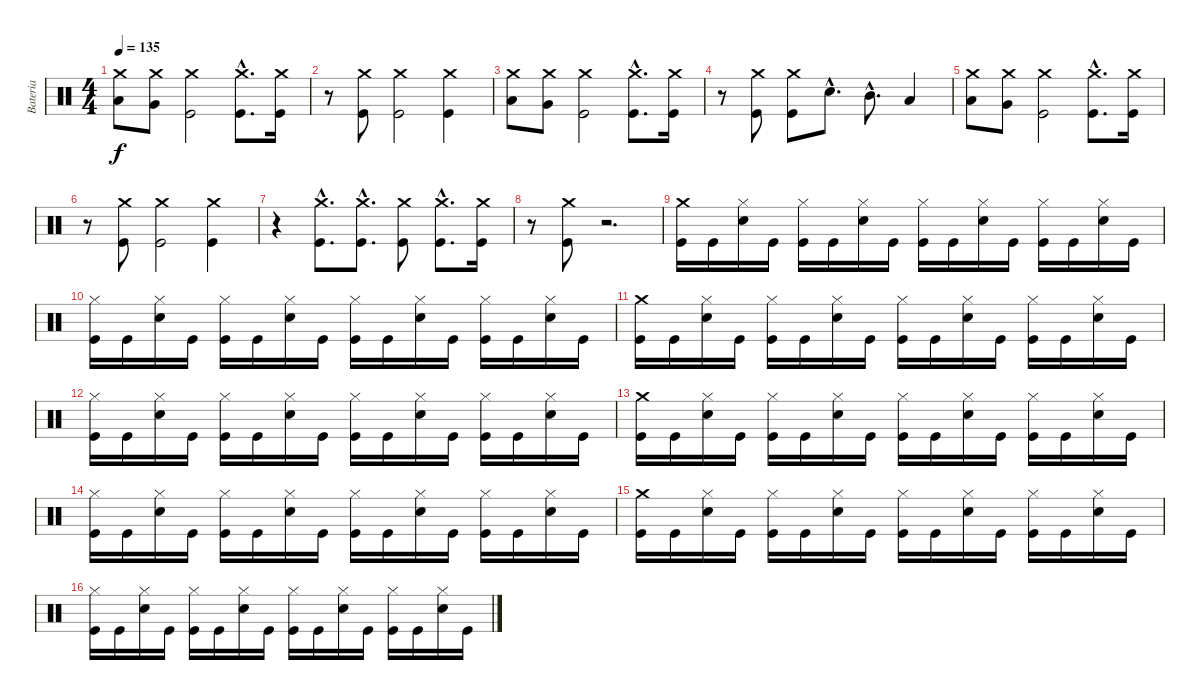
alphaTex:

\track ("Bateria" "Bateria") {instrument percussion}
\staff {score}
\articulation defaults
\ts (4 4)
\tempo 135
\clef neutral
\ks c
("Crash medium (hit)" "Low Tom (hit)").8{dy f} ("Crash medium (hit)" "Very Low Tom (hit)").8 ("Kick (hit)" "Crash medium (hit)").2 ("Kick (hit)"{hac} "Crash medium (hit)"{hac}).8{d} ("Kick (hit)" "Crash medium (hit)").16 |
r.8 ("Kick (hit)" "Crash medium (hit)").8 ("Kick (hit)" "Crash medium (hit)").2 ("Kick (hit)" "Crash medium (hit)").4 |
("Crash medium (hit)" "Low Tom (hit)").8 ("Crash medium (hit)" "Very Low Tom (hit)").8 ("Kick (hit)" "Crash medium (hit)").2 ("Kick (hit)"{hac} "Crash medium (hit)"{hac}).8{d} ("Kick (hit)" "Crash medium (hit)").16 |
r.8 ("Kick (hit)" "Crash medium (hit)").8 ("Kick (hit)" "Crash medium (hit)").8 "Snare (hit) 2"{hac}.8{d} "Mid Tom (hit)"{hac}.8{d} "Low Tom (hit)".4 |
("Crash medium (hit)" "Low Tom (hit)").8 ("Crash medium (hit)" "Very Low Tom (hit)").8 ("Kick (hit)" "Crash medium (hit)").2 ("Kick (hit)"{hac} "Crash medium (hit)"{hac}).8{d} ("Kick (hit)" "Crash medium (hit)").16 |
r.8 ("Kick (hit)" "Crash medium (hit)").8 ("Kick (hit)" "Crash medium (hit)").2 ("Kick (hit)" "Crash medium (hit)").4 |
r.4 ("Kick (hit)"{hac} "Crash medium (hit)"{hac}).8{d} ("Kick (hit)"{hac} "Crash medium (hit)"{hac}).8{d} ("Kick (hit)" "Crash medium (hit)").8 ("Kick (hit)"{hac} "Crash medium (hit)"{hac}).8{d} ("Kick (hit)" "Crash medium (hit)").16 |
r.8 ("Kick (hit)" "Crash medium (hit)").8 r.2{d} |
("Kick (hit)" "Crash medium (hit)").16 "Kick (hit)".16 ("Snare (hit) 2" "Hi-Hat (closed)").16 "Kick (hit)".16 ("Kick (hit)" "Hi-Hat (closed)").16 "Kick (hit)".16 ("Snare (hit) 2" "Hi-Hat (closed)").16 "Kick (hit)".16 ("Kick (hit)" "Hi-Hat (closed)").16 "Kick (hit)".16 ("Snare (hit) 2" "Hi-Hat (closed)").16 "Kick (hit)".16 ("Kick (hit)" "Hi-Hat (closed)").16 "Kick (hit)".16 ("Snare (hit) 2" "Hi-Hat (closed)").16 "Kick (hit)".16 |
("Kick (hit)" "Hi-Hat (closed)").16 "Kick (hit)".16 ("Snare (hit) 2" "Hi-Hat (closed)").16 "Kick (hit)".16 ("Kick (hit)" "Hi-Hat (closed)").16 "Kick (hit)".16 ("Snare (hit) 2" "Hi-Hat (closed)").16 "Kick (hit)".16 ("Kick (hit)" "Hi-Hat (closed)").16 "Kick (hit)".16 ("Snare (hit) 2" "Hi-Hat (closed)").16 "Kick (hit)".16 ("Kick (hit)" "Hi-Hat (closed)").16 "Kick (hit)".16 ("Snare (hit) 2" "Hi-Hat (closed)").16 "Kick (hit)".16 |
("Kick (hit)" "Crash medium (hit)").16 "Kick (hit)".16 ("Snare (hit) 2" "Hi-Hat (closed)").16 "Kick (hit)".16 ("Kick (hit)" "Hi-Hat (closed)").16 "Kick (hit)".16 ("Snare (hit) 2" "Hi-Hat (closed)").16 "Kick (hit)".16 ("Kick (hit)" "Hi-Hat (closed)").16 "Kick (hit)".16 ("Snare (hit) 2" "Hi-Hat (closed)").16 "Kick (hit)".16 ("Kick (hit)" "Hi-Hat (closed)").16 "Kick (hit)".16 ("Snare (hit) 2" "Hi-Hat (closed)").16 "Kick (hit)".16 |
("Kick (hit)" "Hi-Hat (closed)").16 "Kick (hit)".16 ("Snare (hit) 2" "Hi-Hat (closed)").16 "Kick (hit)".16 ("Kick (hit)" "Hi-Hat (closed)").16 "Kick (hit)".16 ("Snare (hit) 2" "Hi-Hat (closed)").16 "Kick (hit)".16 ("Kick (hit)" "Hi-Hat (closed)").16 "Kick (hit)".16 ("Snare (hit) 2" "Hi-Hat (closed)").16 "Kick (hit)".16 ("Kick (hit)" "Hi-Hat (closed)").16 "Kick (hit)".16 ("Snare (hit) 2" "Hi-Hat (closed)").16 "Kick (hit)".16 |
("Kick (hit)" "Crash medium (hit)").16 "Kick (hit)".16 ("Snare (hit) 2" "Hi-Hat (closed)").16 "Kick (hit)".16 ("Kick (hit)" "Hi-Hat (closed)").16 "Kick (hit)".16 ("Snare (hit) 2" "Hi-Hat (closed)").16 "Kick (hit)".16 ("Kick (hit)" "Hi-Hat (closed)").16 "Kick (hit)".16 ("Snare (hit) 2" "Hi-Hat (closed)").16 "Kick (hit)".16 ("Kick (hit)" "Hi-Hat (closed)").16 "Kick (hit)".16 ("Snare (hit) 2" "Hi-Hat (closed)").16 "Kick (hit)".16 |
("Kick (hit)" "Hi-Hat (closed)").16 "Kick (hit)".16 ("Snare (hit) 2" "Hi-Hat (closed)").16 "Kick (hit)".16 ("Kick (hit)" "Hi-Hat (closed)").16 "Kick (hit)".16 ("Snare (hit) 2" "Hi-Hat (closed)").16 "Kick (hit)".16 ("Kick (hit)" "Hi-Hat (closed)").16 "Kick (hit)".16 ("Snare (hit) 2" "Hi-Hat (closed)").16 "Kick (hit)".16 ("Kick (hit)" "Hi-Hat (closed)").16 "Kick (hit)".16 ("Snare (hit) 2" "Hi-Hat (closed)").16 "Kick (hit)".16 |
("Kick (hit)" "Crash medium (hit)").16 "Kick (hit)".16 ("Snare (hit) 2" "Hi-Hat (closed)").16 "Kick (hit)".16 ("Kick (hit)" "Hi-Hat (closed)").16 "Kick (hit)".16 ("Snare (hit) 2" "Hi-Hat (closed)").16 "Kick (hit)".16 ("Kick (hit)" "Hi-Hat (closed)").16 "Kick (hit)".16 ("Snare (hit) 2" "Hi-Hat (closed)").16 "Kick (hit)".16 ("Kick (hit)" "Hi-Hat (closed)").16 "Kick (hit)".16 ("Snare (hit) 2" "Hi-Hat (closed)").16 "Kick (hit)".16 |
("Kick (hit)" "Hi-Hat (closed)").16 "Kick (hit)".16 ("Snare (hit) 2" "Hi-Hat (closed)").16 "Kick (hit)".16 ("Kick (hit)" "Hi-Hat (closed)").16 "Kick (hit)".16 ("Snare (hit) 2" "Hi-Hat (closed)").16 "Kick (hit)".16 ("Kick (hit)" "Hi-Hat (closed)").16 "Kick (hit)".16 ("Snare (hit) 2" "Hi-Hat (closed)").16 "Kick (hit)".16 ("Kick (hit)" "Hi-Hat (closed)").16 "Kick (hit)".16 ("Snare (hit) 2" "Hi-Hat (closed)").16 "Kick (hit)".16
